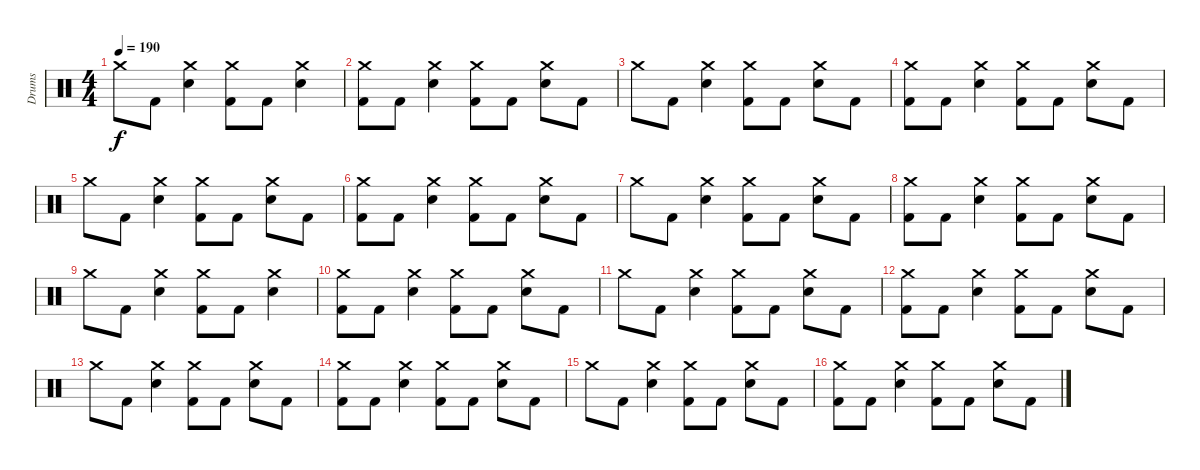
\track ("Drums" "Drums") {instrument percussion}
\staff {score}
\articulation defaults
\ts (4 4)
\tempo 190
\clef neutral
\ks c "Crash medium (hit)".8{dy f} "Kick (hit) 2".8
("Crash medium (hit)" "Electric Snare (hit)").4 ("Crash medium (hit)" "Kick (hit) 2").8 "Kick (hit) 2".8 ("Crash medium (hit)" "Electric Snare (hit)").4 |
("Crash medium (hit)" "Kick (hit) 2").8 "Kick (hit) 2".8 ("Crash medium (hit)" "Electric Snare (hit)").4 ("Crash medium (hit)" "Kick (hit) 2").8 "Kick (hit) 2".8 ("Crash medium (hit)" "Electric Snare (hit)").8 "Kick (hit) 2".8 |
"Crash medium (hit)".8 "Kick (hit) 2".8 ("Crash medium (hit)" "Electric Snare (hit)").4 ("Crash medium (hit)" "Kick (hit) 2").8 "Kick (hit) 2".8 ("Crash medium (hit)" "Electric Snare (hit)").8 "Kick (hit) 2".8 |
("Crash medium (hit)" "Kick (hit) 2").8 "Kick (hit) 2".8 ("Crash medium (hit)" "Electric Snare (hit)").4 ("Crash medium (hit)" "Kick (hit) 2").8 "Kick (hit) 2".8 ("Crash medium (hit)" "Electric Snare (hit)").8 "Kick (hit) 2".8 |
"Crash medium (hit)".8 "Kick (hit) 2".8 ("Crash medium (hit)" "Electric Snare (hit)").4 ("Crash medium (hit)" "Kick (hit) 2").8 "Kick (hit) 2".8 ("Crash medium (hit)" "Electric Snare (hit)").8 "Kick (hit) 2".8 |
("Crash medium (hit)" "Kick (hit) 2").8 "Kick (hit) 2".8 ("Crash medium (hit)" "Electric Snare (hit)").4 ("Crash medium (hit)" "Kick (hit) 2").8 "Kick (hit) 2".8 ("Crash medium (hit)" "Electric Snare (hit)").8 "Kick (hit) 2".8 |
"Crash medium (hit)".8 "Kick (hit) 2".8 ("Crash medium (hit)" "Electric Snare (hit)").4 ("Crash medium (hit)" "Kick (hit) 2").8 "Kick (hit) 2".8 ("Crash medium (hit)" "Electric Snare (hit)").8 "Kick (hit) 2".8 |
("Crash medium (hit)" "Kick (hit) 2").8 "Kick (hit) 2".8 ("Crash medium (hit)" "Electric Snare (hit)").4 ("Crash medium (hit)" "Kick (hit) 2").8 "Kick (hit) 2".8 ("Crash medium (hit)" "Electric Snare (hit)").8 "Kick (hit) 2".8 |
"Crash medium (hit)".8 "Kick (hit) 2".8 ("Crash medium (hit)" "Electric Snare (hit)").4 ("Crash medium (hit)" "Kick (hit) 2").8 "Kick (hit) 2".8 ("Crash medium (hit)" "Electric Snare (hit)").4 |
("Crash medium (hit)" "Kick (hit) 2").8 "Kick (hit) 2".8 ("Crash medium (hit)" "Electric Snare (hit)").4 ("Crash medium (hit)" "Kick (hit) 2").8 "Kick (hit) 2".8 ("Crash medium (hit)" "Electric Snare (hit)").8 "Kick (hit) 2".8 |
"Crash medium (hit)".8 "Kick (hit) 2".8 ("Crash medium (hit)" "Electric Snare (hit)").4 ("Crash medium (hit)" "Kick (hit) 2").8 "Kick (hit) 2".8 ("Crash medium (hit)" "Electric Snare (hit)").8 "Kick (hit) 2".8 |
("Crash medium (hit)" "Kick (hit) 2").8 "Kick (hit) 2".8 ("Crash medium (hit)" "Electric Snare (hit)").4 ("Crash medium (hit)" "Kick (hit) 2").8 "Kick (hit) 2".8 ("Crash medium (hit)" "Electric Snare (hit)").8 "Kick (hit) 2".8 |
"Crash medium (hit)".8 "Kick (hit) 2".8 ("Crash medium (hit)" "Electric Snare (hit)").4 ("Crash medium (hit)" "Kick (hit) 2").8 "Kick (hit) 2".8 ("Crash medium (hit)" "Electric Snare (hit)").8 "Kick (hit) 2".8 |
("Crash medium (hit)" "Kick (hit) 2").8 "Kick (hit) 2".8 ("Crash medium (hit)" "Electric Snare (hit)").4 ("Crash medium (hit)" "Kick (hit) 2").8 "Kick (hit) 2".8 ("Crash medium (hit)" "Electric Snare (hit)").8 "Kick (hit) 2".8 |
"Crash medium (hit)".8 "Kick (hit) 2".8 ("Crash medium (hit)" "Electric Snare (hit)").4 ("Crash medium (hit)" "Kick (hit) 2").8 "Kick (hit) 2".8 ("Crash medium (hit)" "Electric Snare (hit)").8 "Kick (hit) 2".8 |
("Crash medium (hit)" "Kick (hit) 2").8 "Kick (hit) 2".8 ("Crash medium (hit)" "Electric Snare (hit)").4 ("Crash medium (hit)" "Kick (hit) 2").8 "Kick (hit) 2".8 ("Crash medium (hit)" "Electric Snare (hit)").8 "Kick (hit) 2".8
